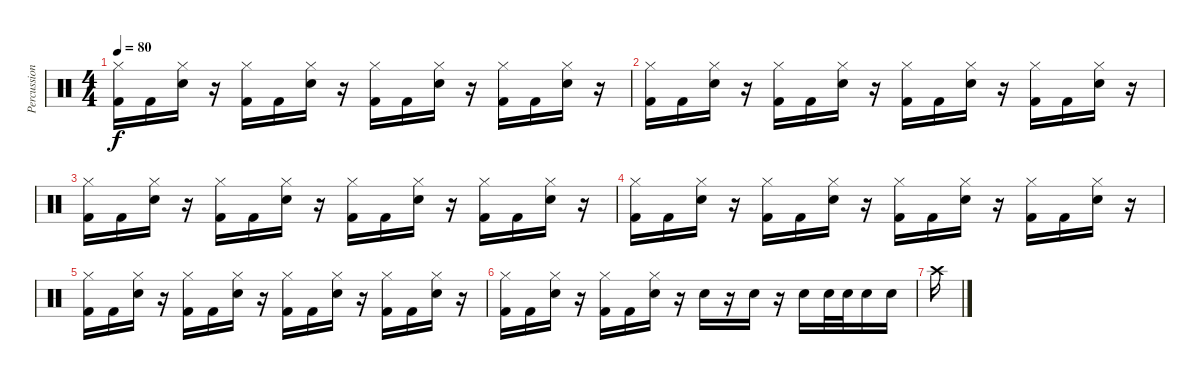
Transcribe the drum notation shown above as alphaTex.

\track ("Percussion" "Percussion") {instrument percussion}
\staff {score}
\articulation defaults
\ts (4 4)
\tempo 80
\clef neutral
\ks c
("Hi-Hat (closed)" "Kick (hit) 2").16{dy f} "Kick (hit) 2".16 ("Hi-Hat (closed)" "Electric Snare (hit)").16 r.16 ("Hi-Hat (closed)" "Kick (hit) 2").16 "Kick (hit) 2".16 ("Hi-Hat (closed)" "Electric Snare (hit)").16 r.16 ("Hi-Hat (closed)" "Kick (hit) 2").16 "Kick (hit) 2".16 ("Hi-Hat (closed)" "Electric Snare (hit)").16 r.16 ("Hi-Hat (closed)" "Kick (hit) 2").16 "Kick (hit) 2".16 ("Hi-Hat (closed)" "Electric Snare (hit)").16 r.16 |
("Hi-Hat (closed)" "Kick (hit) 2").16 "Kick (hit) 2".16 ("Hi-Hat (closed)" "Electric Snare (hit)").16 r.16 ("Hi-Hat (closed)" "Kick (hit) 2").16 "Kick (hit) 2".16 ("Hi-Hat (closed)" "Electric Snare (hit)").16 r.16 ("Hi-Hat (closed)" "Kick (hit) 2").16 "Kick (hit) 2".16 ("Hi-Hat (closed)" "Electric Snare (hit)").16 r.16 ("Hi-Hat (closed)" "Kick (hit) 2").16 "Kick (hit) 2".16 ("Hi-Hat (closed)" "Electric Snare (hit)").16 r.16 |
("Hi-Hat (closed)" "Kick (hit) 2").16 "Kick (hit) 2".16 ("Hi-Hat (closed)" "Electric Snare (hit)").16 r.16 ("Hi-Hat (closed)" "Kick (hit) 2").16 "Kick (hit) 2".16 ("Hi-Hat (closed)" "Electric Snare (hit)").16 r.16 ("Hi-Hat (closed)" "Kick (hit) 2").16 "Kick (hit) 2".16 ("Hi-Hat (closed)" "Electric Snare (hit)").16 r.16 ("Hi-Hat (closed)" "Kick (hit) 2").16 "Kick (hit) 2".16 ("Hi-Hat (closed)" "Electric Snare (hit)").16 r.16 |
("Hi-Hat (closed)" "Kick (hit) 2").16 "Kick (hit) 2".16 ("Hi-Hat (closed)" "Electric Snare (hit)").16 r.16 ("Hi-Hat (closed)" "Kick (hit) 2").16 "Kick (hit) 2".16 ("Hi-Hat (closed)" "Electric Snare (hit)").16 r.16 ("Hi-Hat (closed)" "Kick (hit) 2").16 "Kick (hit) 2".16 ("Hi-Hat (closed)" "Electric Snare (hit)").16 r.16 ("Hi-Hat (closed)" "Kick (hit) 2").16 "Kick (hit) 2".16 ("Hi-Hat (closed)" "Electric Snare (hit)").16 r.16 |
("Hi-Hat (closed)" "Kick (hit) 2").16 "Kick (hit) 2".16 ("Hi-Hat (closed)" "Electric Snare (hit)").16 r.16 ("Hi-Hat (closed)" "Kick (hit) 2").16 "Kick (hit) 2".16 ("Hi-Hat (closed)" "Electric Snare (hit)").16 r.16 ("Hi-Hat (closed)" "Kick (hit) 2").16 "Kick (hit) 2".16 ("Hi-Hat (closed)" "Electric Snare (hit)").16 r.16 ("Hi-Hat (closed)" "Kick (hit) 2").16 "Kick (hit) 2".16 ("Hi-Hat (closed)" "Electric Snare (hit)").16 r.16 |
("Hi-Hat (closed)" "Kick (hit) 2").16 "Kick (hit) 2".16 ("Hi-Hat (closed)" "Electric Snare (hit)").16 r.16 ("Hi-Hat (closed)" "Kick (hit) 2").16 "Kick (hit) 2".16 ("Hi-Hat (closed)" "Electric Snare (hit)").16 r.16 "Electric Snare (hit)".16 r.16 "Electric Snare (hit)".16 r.16 "Electric Snare (hit)".16 "Electric Snare (hit)".32 "Electric Snare (hit)".32 "Electric Snare (hit)".16 "Electric Snare (hit)".16 |
"Crash high (hit)".16
